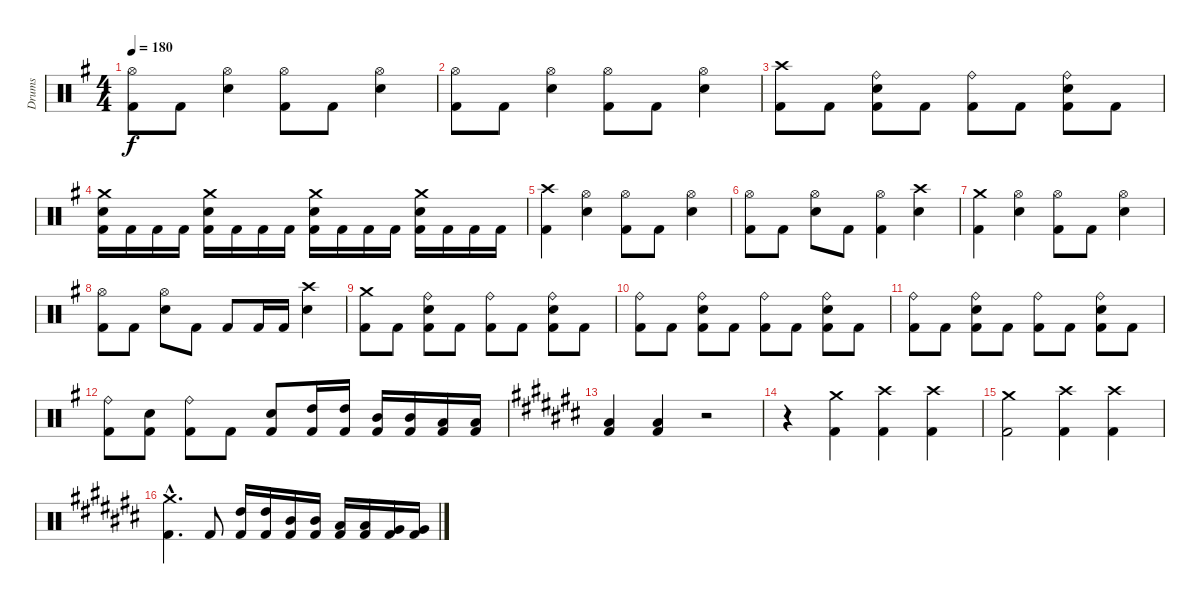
\track ("Drums" "Drums") {instrument percussion}
\staff {score}
\articulation defaults
\ts (4 4)
\tempo 180
\clef neutral
\ks eminor
("Kick (hit) 2" "Hi-Hat (open)").8{dy f} "Kick (hit) 2".8 ("Electric Snare (hit)" "Hi-Hat (open)").4 ("Kick (hit) 2" "Hi-Hat (open)").8 "Kick (hit) 2".8 ("Electric Snare (hit)" "Hi-Hat (open)").4 |
("Kick (hit) 2" "Hi-Hat (open)").8 "Kick (hit) 2".8 ("Electric Snare (hit)" "Hi-Hat (open)").4 ("Kick (hit) 2" "Hi-Hat (open)").8 "Kick (hit) 2".8 ("Electric Snare (hit)" "Hi-Hat (open)").4 |
("Kick (hit) 2" "Crash high (hit)").8 "Kick (hit) 2".8 ("Kick (hit) 2" "Electric Snare (hit)" "Ride (bell)").8 "Kick (hit) 2".8 ("Kick (hit) 2" "Ride (bell)").8 "Kick (hit) 2".8 ("Kick (hit) 2" "Electric Snare (hit)" "Ride (bell)").8 "Kick (hit) 2".8 |
("Kick (hit) 2" "Electric Snare (hit)" "Crash medium (hit)").16 "Kick (hit) 2".16 "Kick (hit) 2".16 "Kick (hit) 2".16 ("Kick (hit) 2" "Electric Snare (hit)" "Crash medium (hit)").16 "Kick (hit) 2".16 "Kick (hit) 2".16 "Kick (hit) 2".16 ("Kick (hit) 2" "Electric Snare (hit)" "Crash medium (hit)").16 "Kick (hit) 2".16 "Kick (hit) 2".16 "Kick (hit) 2".16 ("Kick (hit) 2" "Electric Snare (hit)" "Crash medium (hit)").16 "Kick (hit) 2".16 "Kick (hit) 2".16 "Kick (hit) 2".16 |
\section ("" "")
("Kick (hit) 2" "Crash high (hit)").4 ("Electric Snare (hit)" "Hi-Hat (open)").4 ("Kick (hit) 2" "Hi-Hat (open)").8 "Kick (hit) 2".8 ("Electric Snare (hit)" "Hi-Hat (open)").4 |
("Kick (hit) 2" "Hi-Hat (open)").8 "Kick (hit) 2".8 ("Electric Snare (hit)" "Hi-Hat (open)").8 "Kick (hit) 2".8 ("Kick (hit) 2" "Hi-Hat (open)").4 ("Electric Snare (hit)" "Crash high (hit)").4 |
("Kick (hit) 2" "Crash medium (hit)").4 ("Electric Snare (hit)" "Hi-Hat (open)").4 ("Kick (hit) 2" "Hi-Hat (open)").8 "Kick (hit) 2".8 ("Electric Snare (hit)" "Hi-Hat (open)").4 |
("Kick (hit) 2" "Hi-Hat (open)").8 "Kick (hit) 2".8 ("Electric Snare (hit)" "Hi-Hat (open)").8 "Kick (hit) 2".8 "Kick (hit) 2".8 "Kick (hit) 2".16 "Kick (hit) 2".16 ("Electric Snare (hit)" "Crash high (hit)").4 |
("Kick (hit) 2" "Crash medium (hit)").8 "Kick (hit) 2".8 ("Kick (hit) 2" "Electric Snare (hit)" "Ride (bell)").8 "Kick (hit) 2".8 ("Kick (hit) 2" "Ride (bell)").8 "Kick (hit) 2".8 ("Kick (hit) 2" "Electric Snare (hit)" "Ride (bell)").8 "Kick (hit) 2".8 |
("Kick (hit) 2" "Ride (bell)").8 "Kick (hit) 2".8 ("Kick (hit) 2" "Electric Snare (hit)" "Ride (bell)").8 "Kick (hit) 2".8 ("Kick (hit) 2" "Ride (bell)").8 "Kick (hit) 2".8 ("Kick (hit) 2" "Electric Snare (hit)" "Ride (bell)").8 "Kick (hit) 2".8 |
("Kick (hit) 2" "Ride (bell)").8 "Kick (hit) 2".8 ("Kick (hit) 2" "Electric Snare (hit)" "Ride (bell)").8 "Kick (hit) 2".8 ("Kick (hit) 2" "Ride (bell)").8 "Kick (hit) 2".8 ("Kick (hit) 2" "Electric Snare (hit)" "Ride (bell)").8 "Kick (hit) 2".8 |
("Kick (hit) 2" "Ride (bell)").8 ("Kick (hit) 2" "Electric Snare (hit)").8 ("Kick (hit) 2" "Ride (bell)").8 "Kick (hit) 2".8 ("Kick (hit) 2" "Electric Snare (hit)").8 ("Kick (hit) 2" "High Tom (hit)").16 ("Kick (hit) 2" "High Tom (hit)").16 ("Kick (hit) 2" "Mid Tom (hit)").16 ("Kick (hit) 2" "Mid Tom (hit)").16 ("Kick (hit) 2" "Low Tom (hit)").16 ("Kick (hit) 2" "Low Tom (hit)").16 |
\section ("" "")
\ks a#minor
("Kick (hit) 2" "Low Floor Tom (hit)").4 ("Kick (hit) 2" "Low Floor Tom (hit)").4 r.2 |
r.4 ("Kick (hit) 2" "Crash medium (hit)").4 ("Kick (hit) 2" "Crash high (hit)").4 ("Kick (hit) 2" "Crash high (hit)").4 |
("Kick (hit) 2" "Crash medium (hit)").2 ("Kick (hit) 2" "Crash high (hit)").4 ("Kick (hit) 2" "Crash high (hit)").4 |
("Kick (hit) 2"{hac} "Crash medium (hit)"{hac}).4{d} "Kick (hit) 2".8 ("Kick (hit) 2" "High Tom (hit)").16 ("Kick (hit) 2" "High Tom (hit)").16 ("Kick (hit) 2" "Mid Tom (hit)").16 ("Kick (hit) 2" "Mid Tom (hit)").16 ("Kick (hit) 2" "Low Tom (hit)").16 ("Kick (hit) 2" "Low Tom (hit)").16 ("Kick (hit) 2" "Very Low Tom (hit)").16 ("Kick (hit) 2" "Very Low Tom (hit)").16
